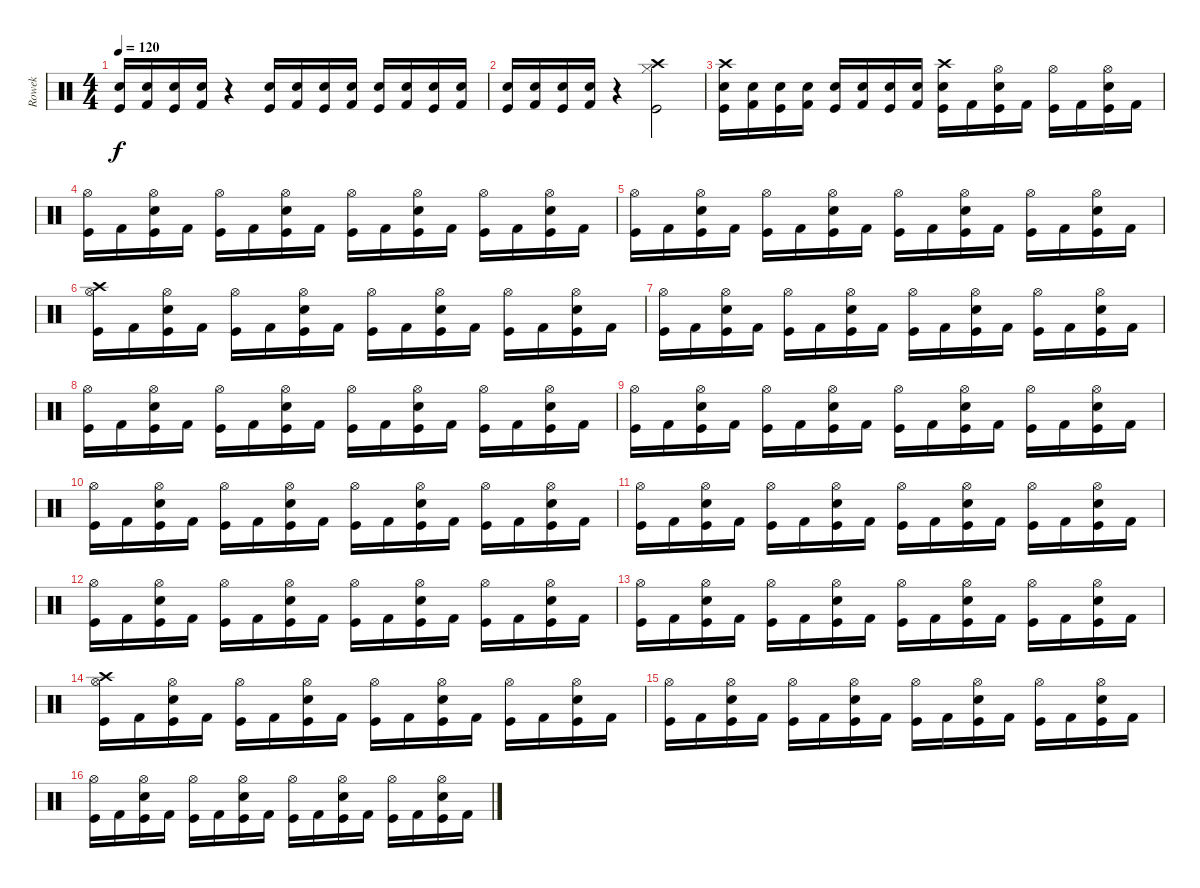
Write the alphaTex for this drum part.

\track ("Rowek" "Rowek") {instrument percussion}
\staff {score}
\articulation defaults
\ts (4 4)
\tempo 120
\clef neutral
\ks c
("Snare (hit) 2" "Kick (hit)").16{dy f} ("Snare (hit) 2" "Kick (hit) 2").16 ("Snare (hit) 2" "Kick (hit)").16 ("Snare (hit) 2" "Kick (hit) 2").16 r.4 ("Snare (hit) 2" "Kick (hit)").16 ("Snare (hit) 2" "Kick (hit) 2").16 ("Snare (hit) 2" "Kick (hit)").16 ("Snare (hit) 2" "Kick (hit) 2").16 ("Snare (hit) 2" "Kick (hit)").16 ("Snare (hit) 2" "Kick (hit) 2").16 ("Snare (hit) 2" "Kick (hit)").16 ("Snare (hit) 2" "Kick (hit) 2").16 |
("Snare (hit) 2" "Kick (hit)").16 ("Snare (hit) 2" "Kick (hit) 2").16 ("Snare (hit) 2" "Kick (hit)").16 ("Snare (hit) 2" "Kick (hit) 2").16 r.4 ("Hi-Hat (closed)" "Crash high (hit)" "Kick (hit)").2 |
("Crash high (hit)" "Snare (hit) 2" "Kick (hit)").16 ("Snare (hit) 2" "Kick (hit) 2").16 ("Snare (hit) 2" "Kick (hit)").16 ("Snare (hit) 2" "Kick (hit) 2").16 ("Snare (hit) 2" "Kick (hit)").16 ("Snare (hit) 2" "Kick (hit) 2").16 ("Snare (hit) 2" "Kick (hit)").16 ("Snare (hit) 2" "Kick (hit) 2").16 ("Crash high (hit)" "Snare (hit) 2" "Kick (hit)").16 "Kick (hit) 2".16 ("Hi-Hat (open)" "Snare (hit) 2" "Kick (hit)").16 "Kick (hit) 2".16 ("Hi-Hat (open)" "Kick (hit)").16 "Kick (hit) 2".16 ("Hi-Hat (open)" "Snare (hit) 2" "Kick (hit)").16 "Kick (hit) 2".16 |
("Hi-Hat (open)" "Kick (hit)").16 "Kick (hit) 2".16 ("Hi-Hat (open)" "Snare (hit) 2" "Kick (hit)").16 "Kick (hit) 2".16 ("Hi-Hat (open)" "Kick (hit)").16 "Kick (hit) 2".16 ("Hi-Hat (open)" "Snare (hit) 2" "Kick (hit)").16 "Kick (hit) 2".16 ("Hi-Hat (open)" "Kick (hit)").16 "Kick (hit) 2".16 ("Hi-Hat (open)" "Snare (hit) 2" "Kick (hit)").16 "Kick (hit) 2".16 ("Hi-Hat (open)" "Kick (hit)").16 "Kick (hit) 2".16 ("Hi-Hat (open)" "Snare (hit) 2" "Kick (hit)").16 "Kick (hit) 2".16 |
("Hi-Hat (open)" "Kick (hit)").16 "Kick (hit) 2".16 ("Hi-Hat (open)" "Snare (hit) 2" "Kick (hit)").16 "Kick (hit) 2".16 ("Hi-Hat (open)" "Kick (hit)").16 "Kick (hit) 2".16 ("Hi-Hat (open)" "Snare (hit) 2" "Kick (hit)").16 "Kick (hit) 2".16 ("Hi-Hat (open)" "Kick (hit)").16 "Kick (hit) 2".16 ("Hi-Hat (open)" "Snare (hit) 2" "Kick (hit)").16 "Kick (hit) 2".16 ("Hi-Hat (open)" "Kick (hit)").16 "Kick (hit) 2".16 ("Hi-Hat (open)" "Snare (hit) 2" "Kick (hit)").16 "Kick (hit) 2".16 |
("Hi-Hat (open)" "Crash high (hit)" "Kick (hit)").16 "Kick (hit) 2".16 ("Hi-Hat (open)" "Snare (hit) 2" "Kick (hit)").16 "Kick (hit) 2".16 ("Hi-Hat (open)" "Kick (hit)").16 "Kick (hit) 2".16 ("Hi-Hat (open)" "Snare (hit) 2" "Kick (hit)").16 "Kick (hit) 2".16 ("Hi-Hat (open)" "Kick (hit)").16 "Kick (hit) 2".16 ("Hi-Hat (open)" "Snare (hit) 2" "Kick (hit)").16 "Kick (hit) 2".16 ("Hi-Hat (open)" "Kick (hit)").16 "Kick (hit) 2".16 ("Hi-Hat (open)" "Snare (hit) 2" "Kick (hit)").16 "Kick (hit) 2".16 |
("Hi-Hat (open)" "Kick (hit)").16 "Kick (hit) 2".16 ("Hi-Hat (open)" "Snare (hit) 2" "Kick (hit)").16 "Kick (hit) 2".16 ("Hi-Hat (open)" "Kick (hit)").16 "Kick (hit) 2".16 ("Hi-Hat (open)" "Snare (hit) 2" "Kick (hit)").16 "Kick (hit) 2".16 ("Hi-Hat (open)" "Kick (hit)").16 "Kick (hit) 2".16 ("Hi-Hat (open)" "Snare (hit) 2" "Kick (hit)").16 "Kick (hit) 2".16 ("Hi-Hat (open)" "Kick (hit)").16 "Kick (hit) 2".16 ("Hi-Hat (open)" "Snare (hit) 2" "Kick (hit)").16 "Kick (hit) 2".16 |
("Hi-Hat (open)" "Kick (hit)").16 "Kick (hit) 2".16 ("Hi-Hat (open)" "Snare (hit) 2" "Kick (hit)").16 "Kick (hit) 2".16 ("Hi-Hat (open)" "Kick (hit)").16 "Kick (hit) 2".16 ("Hi-Hat (open)" "Snare (hit) 2" "Kick (hit)").16 "Kick (hit) 2".16 ("Hi-Hat (open)" "Kick (hit)").16 "Kick (hit) 2".16 ("Hi-Hat (open)" "Snare (hit) 2" "Kick (hit)").16 "Kick (hit) 2".16 ("Hi-Hat (open)" "Kick (hit)").16 "Kick (hit) 2".16 ("Hi-Hat (open)" "Snare (hit) 2" "Kick (hit)").16 "Kick (hit) 2".16 |
("Hi-Hat (open)" "Kick (hit)").16 "Kick (hit) 2".16 ("Hi-Hat (open)" "Snare (hit) 2" "Kick (hit)").16 "Kick (hit) 2".16 ("Hi-Hat (open)" "Kick (hit)").16 "Kick (hit) 2".16 ("Hi-Hat (open)" "Snare (hit) 2" "Kick (hit)").16 "Kick (hit) 2".16 ("Hi-Hat (open)" "Kick (hit)").16 "Kick (hit) 2".16 ("Hi-Hat (open)" "Snare (hit) 2" "Kick (hit)").16 "Kick (hit) 2".16 ("Hi-Hat (open)" "Kick (hit)").16 "Kick (hit) 2".16 ("Hi-Hat (open)" "Snare (hit) 2" "Kick (hit)").16 "Kick (hit) 2".16 |
("Hi-Hat (open)" "Kick (hit)").16 "Kick (hit) 2".16 ("Hi-Hat (open)" "Snare (hit) 2" "Kick (hit)").16 "Kick (hit) 2".16 ("Hi-Hat (open)" "Kick (hit)").16 "Kick (hit) 2".16 ("Hi-Hat (open)" "Snare (hit) 2" "Kick (hit)").16 "Kick (hit) 2".16 ("Hi-Hat (open)" "Kick (hit)").16 "Kick (hit) 2".16 ("Hi-Hat (open)" "Snare (hit) 2" "Kick (hit)").16 "Kick (hit) 2".16 ("Hi-Hat (open)" "Kick (hit)").16 "Kick (hit) 2".16 ("Hi-Hat (open)" "Snare (hit) 2" "Kick (hit)").16 "Kick (hit) 2".16 |
("Hi-Hat (open)" "Kick (hit)").16 "Kick (hit) 2".16 ("Hi-Hat (open)" "Snare (hit) 2" "Kick (hit)").16 "Kick (hit) 2".16 ("Hi-Hat (open)" "Kick (hit)").16 "Kick (hit) 2".16 ("Hi-Hat (open)" "Snare (hit) 2" "Kick (hit)").16 "Kick (hit) 2".16 ("Hi-Hat (open)" "Kick (hit)").16 "Kick (hit) 2".16 ("Hi-Hat (open)" "Snare (hit) 2" "Kick (hit)").16 "Kick (hit) 2".16 ("Hi-Hat (open)" "Kick (hit)").16 "Kick (hit) 2".16 ("Hi-Hat (open)" "Snare (hit) 2" "Kick (hit)").16 "Kick (hit) 2".16 |
("Hi-Hat (open)" "Kick (hit)").16 "Kick (hit) 2".16 ("Hi-Hat (open)" "Snare (hit) 2" "Kick (hit)").16 "Kick (hit) 2".16 ("Hi-Hat (open)" "Kick (hit)").16 "Kick (hit) 2".16 ("Hi-Hat (open)" "Snare (hit) 2" "Kick (hit)").16 "Kick (hit) 2".16 ("Hi-Hat (open)" "Kick (hit)").16 "Kick (hit) 2".16 ("Hi-Hat (open)" "Snare (hit) 2" "Kick (hit)").16 "Kick (hit) 2".16 ("Hi-Hat (open)" "Kick (hit)").16 "Kick (hit) 2".16 ("Hi-Hat (open)" "Snare (hit) 2" "Kick (hit)").16 "Kick (hit) 2".16 |
("Hi-Hat (open)" "Kick (hit)").16 "Kick (hit) 2".16 ("Hi-Hat (open)" "Snare (hit) 2" "Kick (hit)").16 "Kick (hit) 2".16 ("Hi-Hat (open)" "Kick (hit)").16 "Kick (hit) 2".16 ("Hi-Hat (open)" "Snare (hit) 2" "Kick (hit)").16 "Kick (hit) 2".16 ("Hi-Hat (open)" "Kick (hit)").16 "Kick (hit) 2".16 ("Hi-Hat (open)" "Snare (hit) 2" "Kick (hit)").16 "Kick (hit) 2".16 ("Hi-Hat (open)" "Kick (hit)").16 "Kick (hit) 2".16 ("Hi-Hat (open)" "Snare (hit) 2" "Kick (hit)").16 "Kick (hit) 2".16 |
("Hi-Hat (open)" "Crash high (hit)" "Kick (hit)").16 "Kick (hit) 2".16 ("Hi-Hat (open)" "Snare (hit) 2" "Kick (hit)").16 "Kick (hit) 2".16 ("Hi-Hat (open)" "Kick (hit)").16 "Kick (hit) 2".16 ("Hi-Hat (open)" "Snare (hit) 2" "Kick (hit)").16 "Kick (hit) 2".16 ("Hi-Hat (open)" "Kick (hit)").16 "Kick (hit) 2".16 ("Hi-Hat (open)" "Snare (hit) 2" "Kick (hit)").16 "Kick (hit) 2".16 ("Hi-Hat (open)" "Kick (hit)").16 "Kick (hit) 2".16 ("Hi-Hat (open)" "Snare (hit) 2" "Kick (hit)").16 "Kick (hit) 2".16 |
("Hi-Hat (open)" "Kick (hit)").16 "Kick (hit) 2".16 ("Hi-Hat (open)" "Snare (hit) 2" "Kick (hit)").16 "Kick (hit) 2".16 ("Hi-Hat (open)" "Kick (hit)").16 "Kick (hit) 2".16 ("Hi-Hat (open)" "Snare (hit) 2" "Kick (hit)").16 "Kick (hit) 2".16 ("Hi-Hat (open)" "Kick (hit)").16 "Kick (hit) 2".16 ("Hi-Hat (open)" "Snare (hit) 2" "Kick (hit)").16 "Kick (hit) 2".16 ("Hi-Hat (open)" "Kick (hit)").16 "Kick (hit) 2".16 ("Hi-Hat (open)" "Snare (hit) 2" "Kick (hit)").16 "Kick (hit) 2".16 |
("Hi-Hat (open)" "Kick (hit)").16 "Kick (hit) 2".16 ("Hi-Hat (open)" "Snare (hit) 2" "Kick (hit)").16 "Kick (hit) 2".16 ("Hi-Hat (open)" "Kick (hit)").16 "Kick (hit) 2".16 ("Hi-Hat (open)" "Snare (hit) 2" "Kick (hit)").16 "Kick (hit) 2".16 ("Hi-Hat (open)" "Kick (hit)").16 "Kick (hit) 2".16 ("Hi-Hat (open)" "Snare (hit) 2" "Kick (hit)").16 "Kick (hit) 2".16 ("Hi-Hat (open)" "Kick (hit)").16 "Kick (hit) 2".16 ("Hi-Hat (open)" "Snare (hit) 2" "Kick (hit)").16 "Kick (hit) 2".16
